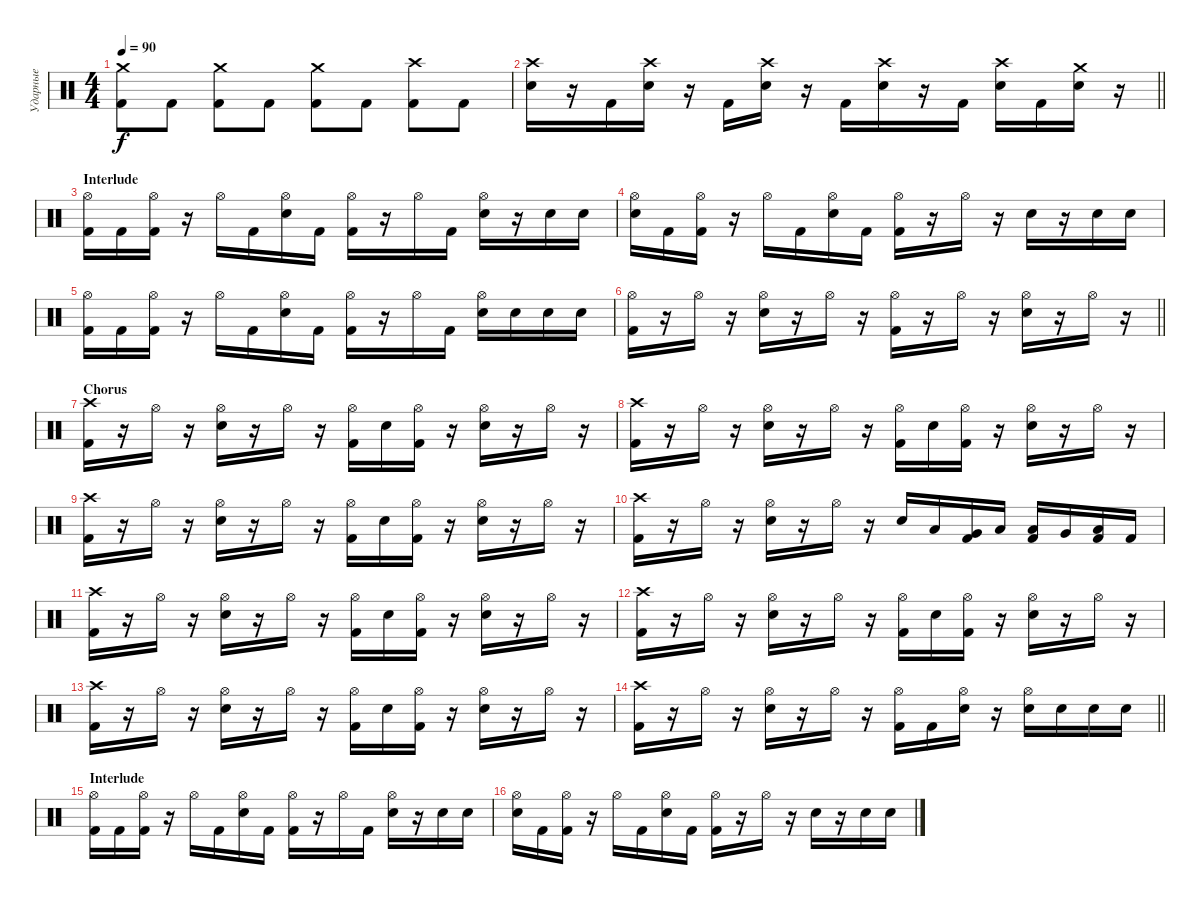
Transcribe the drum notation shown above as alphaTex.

\track ("Ударные" "Ударные") {instrument percussion}
\staff {score}
\articulation defaults
\ts (4 4)
\tempo 90
\clef neutral
\ks c
("Kick (hit) 2" "Crash medium (hit)").8{dy f} "Kick (hit) 2".8 ("Kick (hit) 2" "Crash medium (hit)").8 "Kick (hit) 2".8 ("Kick (hit) 2" "Crash medium (hit)").8 "Kick (hit) 2".8 ("Kick (hit) 2" "Crash high (hit)").8 "Kick (hit) 2".8 |
\barLineRight lightlight
("Snare (hit) 2" "Crash high (hit)").16 r.16 "Kick (hit) 2".16 ("Snare (hit) 2" "Crash high (hit)").16 r.16 "Kick (hit) 2".16 ("Snare (hit) 2" "Crash high (hit)").16 r.16 "Kick (hit) 2".16 ("Snare (hit) 2" "Crash high (hit)").16 r.16 "Kick (hit) 2".16 ("Snare (hit) 2" "Crash high (hit)").16 "Kick (hit) 2".16 ("Snare (hit) 2" "Crash medium (hit)").16 r.16 |
\section ("" "Interlude")
("Hi-Hat (open)" "Kick (hit) 2").16 "Kick (hit) 2".16 ("Hi-Hat (open)" "Kick (hit) 2").16 r.16 "Hi-Hat (open)".16 "Kick (hit) 2".16 ("Hi-Hat (open)" "Snare (hit) 2").16 "Kick (hit) 2".16 ("Hi-Hat (open)" "Kick (hit) 2").16 r.16 "Hi-Hat (open)".16 "Kick (hit) 2".16 ("Hi-Hat (open)" "Snare (hit) 2").16 r.16 "Snare (hit) 2".16 "Snare (hit) 2".16 |
("Hi-Hat (open)" "Snare (hit) 2").16 "Kick (hit) 2".16 ("Hi-Hat (open)" "Kick (hit) 2").16 r.16 "Hi-Hat (open)".16 "Kick (hit) 2".16 ("Hi-Hat (open)" "Snare (hit) 2").16 "Kick (hit) 2".16 ("Hi-Hat (open)" "Kick (hit) 2").16 r.16 "Hi-Hat (open)".16 r.16 "Snare (hit) 2".16 r.16 "Snare (hit) 2".16 "Snare (hit) 2".16 |
("Hi-Hat (open)" "Kick (hit) 2").16 "Kick (hit) 2".16 ("Hi-Hat (open)" "Kick (hit) 2").16 r.16 "Hi-Hat (open)".16 "Kick (hit) 2".16 ("Hi-Hat (open)" "Snare (hit) 2").16 "Kick (hit) 2".16 ("Hi-Hat (open)" "Kick (hit) 2").16 r.16 "Hi-Hat (open)".16 "Kick (hit) 2".16 ("Hi-Hat (open)" "Snare (hit) 2").16 "Snare (hit) 2".16 "Snare (hit) 2".16 "Snare (hit) 2".16 |
\barLineRight lightlight
("Hi-Hat (open)" "Kick (hit) 2").16 r.16 "Hi-Hat (open)".16 r.16 ("Hi-Hat (open)" "Snare (hit) 2").16 r.16 "Hi-Hat (open)".16 r.16 ("Hi-Hat (open)" "Kick (hit) 2").16 r.16 "Hi-Hat (open)".16 r.16 ("Hi-Hat (open)" "Snare (hit) 2").16 r.16 "Hi-Hat (open)".16 r.16 |
\section ("" "Chorus")
("Crash high (hit)" "Kick (hit) 2").16 r.16 "Hi-Hat (open)".16 r.16 ("Hi-Hat (open)" "Snare (hit) 2").16 r.16 "Hi-Hat (open)".16 r.16 ("Hi-Hat (open)" "Kick (hit) 2").16 "Snare (hit) 2".16 ("Hi-Hat (open)" "Kick (hit) 2").16 r.16 ("Hi-Hat (open)" "Snare (hit) 2").16 r.16 "Hi-Hat (open)".16 r.16 |
("Crash high (hit)" "Kick (hit) 2").16 r.16 "Hi-Hat (open)".16 r.16 ("Hi-Hat (open)" "Snare (hit) 2").16 r.16 "Hi-Hat (open)".16 r.16 ("Hi-Hat (open)" "Kick (hit) 2").16 "Snare (hit) 2".16 ("Hi-Hat (open)" "Kick (hit) 2").16 r.16 ("Hi-Hat (open)" "Snare (hit) 2").16 r.16 "Hi-Hat (open)".16 r.16 |
("Crash high (hit)" "Kick (hit) 2").16 r.16 "Hi-Hat (open)".16 r.16 ("Hi-Hat (open)" "Snare (hit) 2").16 r.16 "Hi-Hat (open)".16 r.16 ("Hi-Hat (open)" "Kick (hit) 2").16 "Snare (hit) 2".16 ("Hi-Hat (open)" "Kick (hit) 2").16 r.16 ("Hi-Hat (open)" "Snare (hit) 2").16 r.16 "Hi-Hat (open)".16 r.16 |
("Crash high (hit)" "Kick (hit) 2").16 r.16 "Hi-Hat (open)".16 r.16 ("Hi-Hat (open)" "Snare (hit) 2").16 r.16 "Hi-Hat (open)".16 r.16 "Snare (hit) 2".16 "Low Tom (hit)".16 ("Very Low Tom (hit)" "Kick (hit) 2").16 "Low Floor Tom (hit)".16 ("Low Tom (hit)" "Kick (hit) 2").16 "Very Low Tom (hit)".16 ("Low Floor Tom (hit)" "Kick (hit) 2").16 "Kick (hit) 2".16 |
("Crash high (hit)" "Kick (hit) 2").16 r.16 "Hi-Hat (open)".16 r.16 ("Hi-Hat (open)" "Snare (hit) 2").16 r.16 "Hi-Hat (open)".16 r.16 ("Hi-Hat (open)" "Kick (hit) 2").16 "Snare (hit) 2".16 ("Hi-Hat (open)" "Kick (hit) 2").16 r.16 ("Hi-Hat (open)" "Snare (hit) 2").16 r.16 "Hi-Hat (open)".16 r.16 |
("Crash high (hit)" "Kick (hit) 2").16 r.16 "Hi-Hat (open)".16 r.16 ("Hi-Hat (open)" "Snare (hit) 2").16 r.16 "Hi-Hat (open)".16 r.16 ("Hi-Hat (open)" "Kick (hit) 2").16 "Snare (hit) 2".16 ("Hi-Hat (open)" "Kick (hit) 2").16 r.16 ("Hi-Hat (open)" "Snare (hit) 2").16 r.16 "Hi-Hat (open)".16 r.16 |
("Crash high (hit)" "Kick (hit) 2").16 r.16 "Hi-Hat (open)".16 r.16 ("Hi-Hat (open)" "Snare (hit) 2").16 r.16 "Hi-Hat (open)".16 r.16 ("Hi-Hat (open)" "Kick (hit) 2").16 "Snare (hit) 2".16 ("Hi-Hat (open)" "Kick (hit) 2").16 r.16 ("Hi-Hat (open)" "Snare (hit) 2").16 r.16 "Hi-Hat (open)".16 r.16 |
\barLineRight lightlight
("Crash high (hit)" "Kick (hit) 2").16 r.16 "Hi-Hat (open)".16 r.16 ("Hi-Hat (open)" "Snare (hit) 2").16 r.16 "Hi-Hat (open)".16 r.16 ("Hi-Hat (open)" "Kick (hit) 2").16 "Kick (hit) 2".16 ("Hi-Hat (open)" "Snare (hit) 2").16 r.16 ("Hi-Hat (open)" "Snare (hit) 2").16 "Snare (hit) 2".16 "Snare (hit) 2".16 "Snare (hit) 2".16 |
\section ("" "Interlude")
("Hi-Hat (open)" "Kick (hit) 2").16 "Kick (hit) 2".16 ("Hi-Hat (open)" "Kick (hit) 2").16 r.16 "Hi-Hat (open)".16 "Kick (hit) 2".16 ("Hi-Hat (open)" "Snare (hit) 2").16 "Kick (hit) 2".16 ("Hi-Hat (open)" "Kick (hit) 2").16 r.16 "Hi-Hat (open)".16 "Kick (hit) 2".16 ("Hi-Hat (open)" "Snare (hit) 2").16 r.16 "Snare (hit) 2".16 "Snare (hit) 2".16 |
("Hi-Hat (open)" "Snare (hit) 2").16 "Kick (hit) 2".16 ("Hi-Hat (open)" "Kick (hit) 2").16 r.16 "Hi-Hat (open)".16 "Kick (hit) 2".16 ("Hi-Hat (open)" "Snare (hit) 2").16 "Kick (hit) 2".16 ("Hi-Hat (open)" "Kick (hit) 2").16 r.16 "Hi-Hat (open)".16 r.16 "Snare (hit) 2".16 r.16 "Snare (hit) 2".16 "Snare (hit) 2".16
